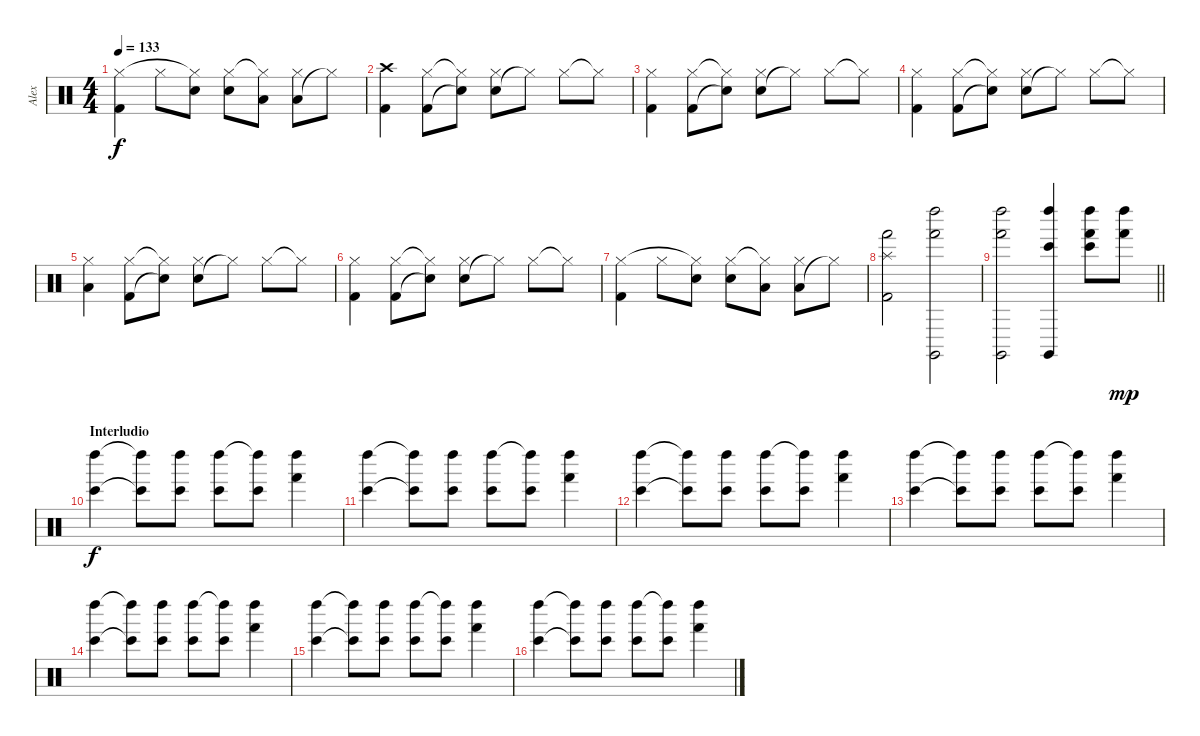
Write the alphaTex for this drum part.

\track ("Alex" "Alex") {instrument percussion}
\staff {score}
\articulation defaults
\ts (4 4)
\tempo 133
\clef neutral
\ks c
("Kick (hit) 2" "Hi-Hat (closed)").4{dy f} "Hi-Hat (closed)".8 ("Electric Snare (hit)" "Hi-Hat (closed)"{t}).8 ("Electric Snare (hit)" "Hi-Hat (closed)").8 ("Low Tom (hit)" "Hi-Hat (closed)"{t}).8 ("Low Tom (hit)" "Hi-Hat (closed)").8 "Hi-Hat (closed)"{t}.8 |
("Kick (hit) 2" "Crash high (hit)").4 ("Kick (hit) 2" "Hi-Hat (closed)").8 ("Electric Snare (hit)"{t} "Hi-Hat (closed)"{t}).8 ("Electric Snare (hit)" "Hi-Hat (closed)").8 "Hi-Hat (closed)"{t}.8 "Hi-Hat (closed)".8 "Hi-Hat (closed)"{t}.8 |
("Kick (hit) 2" "Hi-Hat (closed)").4 ("Kick (hit) 2" "Hi-Hat (closed)").8 ("Electric Snare (hit)"{t} "Hi-Hat (closed)"{t}).8 ("Electric Snare (hit)" "Hi-Hat (closed)").8 "Hi-Hat (closed)"{t}.8 "Hi-Hat (closed)".8 "Hi-Hat (closed)"{t}.8 |
("Kick (hit) 2" "Hi-Hat (closed)").4 ("Kick (hit) 2" "Hi-Hat (closed)").8 ("Electric Snare (hit)"{t} "Hi-Hat (closed)"{t}).8 ("Electric Snare (hit)" "Hi-Hat (closed)").8 "Hi-Hat (closed)"{t}.8 "Hi-Hat (closed)".8 "Hi-Hat (closed)"{t}.8 |
("Low Tom (hit)" "Hi-Hat (closed)").4 ("Kick (hit) 2" "Hi-Hat (closed)").8 ("Electric Snare (hit)"{t} "Hi-Hat (closed)"{t}).8 ("Electric Snare (hit)" "Hi-Hat (closed)").8 "Hi-Hat (closed)"{t}.8 "Hi-Hat (closed)".8 "Hi-Hat (closed)"{t}.8 |
("Kick (hit) 2" "Hi-Hat (closed)").4 ("Kick (hit) 2" "Hi-Hat (closed)").8 ("Electric Snare (hit)"{t} "Hi-Hat (closed)"{t}).8 ("Electric Snare (hit)" "Hi-Hat (closed)").8 "Hi-Hat (closed)"{t}.8 "Hi-Hat (closed)".8 "Hi-Hat (closed)"{t}.8 |
("Kick (hit) 2" "Hi-Hat (closed)").4 "Hi-Hat (closed)".8 ("Electric Snare (hit)" "Hi-Hat (closed)"{t}).8 ("Electric Snare (hit)" "Hi-Hat (closed)").8 ("Low Tom (hit)" "Hi-Hat (closed)"{t}).8 ("Low Tom (hit)" "Hi-Hat (closed)").8 "Hi-Hat (closed)"{t}.8 |
("Hand (hit)" "Kick (hit) 2" "Splash (hit)").2 ("Hand (hit)" "Claves (hit)" "Left Maraca (hit)").2 |
\barLineRight lightlight
("Hand (hit)" "Claves (hit)" "Left Maraca (hit)").2 ("Bongo High (hit)" "Claves (hit)" "Left Maraca (hit)").4 ("Bongo High (hit)" "Hand (hit)" "Left Maraca (hit)").8 ("Hand (hit)" "Left Maraca (hit)").8{dy mp} |
\section ("" "Interludio")
("Bongo High (hit)" "Left Maraca (hit)").4{dy f} ("Bongo High (hit)"{t} "Left Maraca (hit)"{t}).8 ("Bongo High (hit)" "Left Maraca (hit)").8 ("Bongo High (hit)" "Left Maraca (hit)").8 ("Bongo High (hit)" "Left Maraca (hit)"{t}).8 ("Hand (hit)" "Left Maraca (hit)").4 |
("Bongo High (hit)" "Left Maraca (hit)").4 ("Bongo High (hit)"{t} "Left Maraca (hit)"{t}).8 ("Bongo High (hit)" "Left Maraca (hit)").8 ("Bongo High (hit)" "Left Maraca (hit)").8 ("Bongo High (hit)" "Left Maraca (hit)"{t}).8 ("Hand (hit)" "Left Maraca (hit)").4 |
("Bongo High (hit)" "Left Maraca (hit)").4 ("Bongo High (hit)"{t} "Left Maraca (hit)"{t}).8 ("Bongo High (hit)" "Left Maraca (hit)").8 ("Bongo High (hit)" "Left Maraca (hit)").8 ("Bongo High (hit)" "Left Maraca (hit)"{t}).8 ("Hand (hit)" "Left Maraca (hit)").4 |
("Bongo High (hit)" "Left Maraca (hit)").4 ("Bongo High (hit)"{t} "Left Maraca (hit)"{t}).8 ("Bongo High (hit)" "Left Maraca (hit)").8 ("Bongo High (hit)" "Left Maraca (hit)").8 ("Bongo High (hit)" "Left Maraca (hit)"{t}).8 ("Hand (hit)" "Left Maraca (hit)").4 |
("Bongo High (hit)" "Left Maraca (hit)").4 ("Bongo High (hit)"{t} "Left Maraca (hit)"{t}).8 ("Bongo High (hit)" "Left Maraca (hit)").8 ("Bongo High (hit)" "Left Maraca (hit)").8 ("Bongo High (hit)" "Left Maraca (hit)"{t}).8 ("Hand (hit)" "Left Maraca (hit)").4 |
("Bongo High (hit)" "Left Maraca (hit)").4 ("Bongo High (hit)"{t} "Left Maraca (hit)"{t}).8 ("Bongo High (hit)" "Left Maraca (hit)").8 ("Bongo High (hit)" "Left Maraca (hit)").8 ("Bongo High (hit)" "Left Maraca (hit)"{t}).8 ("Hand (hit)" "Left Maraca (hit)").4 |
("Bongo High (hit)" "Left Maraca (hit)").4 ("Bongo High (hit)"{t} "Left Maraca (hit)"{t}).8 ("Bongo High (hit)" "Left Maraca (hit)").8 ("Bongo High (hit)" "Left Maraca (hit)").8 ("Bongo High (hit)" "Left Maraca (hit)"{t}).8 ("Hand (hit)" "Left Maraca (hit)").4
